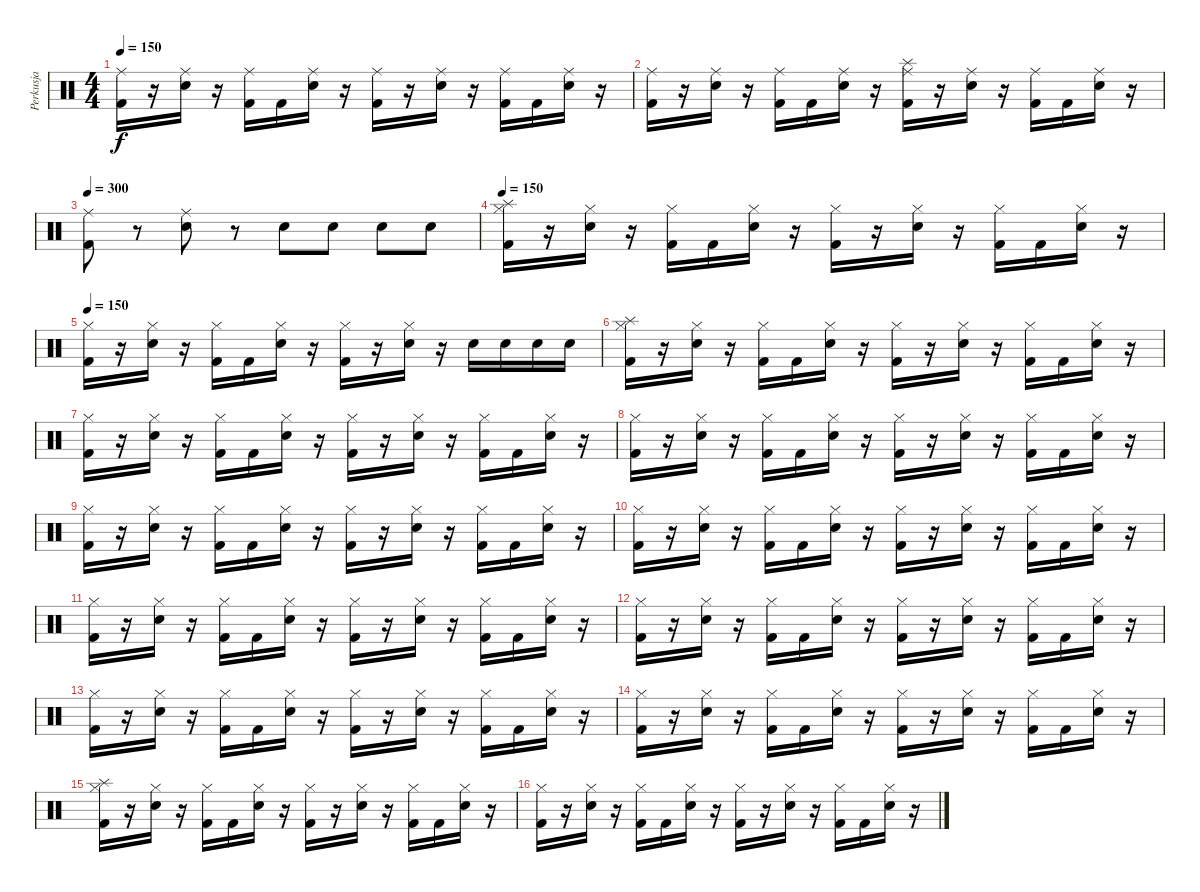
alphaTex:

\track ("Perkusja" "Perkusja") {instrument percussion}
\staff {score}
\articulation defaults
\ts (4 4)
\tempo 150
\clef neutral
\ks c
("Ride (middle)" "Kick (hit) 2").16{dy f} r.16 ("Ride (middle)" "Electric Snare (hit)").16 r.16 ("Ride (middle)" "Kick (hit) 2").16 "Kick (hit) 2".16 ("Ride (middle)" "Electric Snare (hit)").16 r.16 ("Ride (middle)" "Kick (hit) 2").16 r.16 ("Ride (middle)" "Electric Snare (hit)").16 r.16 ("Ride (middle)" "Kick (hit) 2").16 "Kick (hit) 2".16 ("Ride (middle)" "Electric Snare (hit)").16 r.16 |
("Ride (middle)" "Kick (hit) 2").16 r.16 ("Ride (middle)" "Electric Snare (hit)").16 r.16 ("Ride (middle)" "Kick (hit) 2").16 "Kick (hit) 2".16 ("Ride (middle)" "Electric Snare (hit)").16 r.16 ("Splash (hit)" "Ride (middle)" "Kick (hit) 2").16 r.16 ("Ride (middle)" "Electric Snare (hit)").16 r.16 ("Ride (middle)" "Kick (hit) 2").16 "Kick (hit) 2".16 ("Ride (middle)" "Electric Snare (hit)").16 r.16 |
\tempo 300
("Ride (middle)" "Kick (hit) 2").8 r.8 ("Ride (middle)" "Electric Snare (hit)").8 r.8 "Electric Snare (hit)".8 "Electric Snare (hit)".8 "Electric Snare (hit)".8 "Electric Snare (hit)".8 |
\tempo 150
("Splash (hit)" "Hi-Hat (closed)" "Kick (hit) 2").16 r.16 ("Hi-Hat (closed)" "Electric Snare (hit)").16 r.16 ("Hi-Hat (closed)" "Kick (hit) 2").16 "Kick (hit) 2".16 ("Hi-Hat (closed)" "Electric Snare (hit)").16 r.16 ("Hi-Hat (closed)" "Kick (hit) 2").16 r.16 ("Hi-Hat (closed)" "Electric Snare (hit)").16 r.16 ("Hi-Hat (closed)" "Kick (hit) 2").16 "Kick (hit) 2".16 ("Hi-Hat (closed)" "Electric Snare (hit)").16 r.16 |
\tempo 150
("Hi-Hat (closed)" "Kick (hit) 2").16 r.16 ("Hi-Hat (closed)" "Electric Snare (hit)").16 r.16 ("Hi-Hat (closed)" "Kick (hit) 2").16 "Kick (hit) 2".16 ("Hi-Hat (closed)" "Electric Snare (hit)").16 r.16 ("Hi-Hat (closed)" "Kick (hit) 2").16 r.16 ("Hi-Hat (closed)" "Electric Snare (hit)").16 r.16 "Electric Snare (hit)".16 "Electric Snare (hit)".16 "Electric Snare (hit)".16 "Electric Snare (hit)".16 |
("Splash (hit)" "Hi-Hat (closed)" "Kick (hit) 2").16 r.16 ("Hi-Hat (closed)" "Electric Snare (hit)").16 r.16 ("Hi-Hat (closed)" "Kick (hit) 2").16 "Kick (hit) 2".16 ("Hi-Hat (closed)" "Electric Snare (hit)").16 r.16 ("Hi-Hat (closed)" "Kick (hit) 2").16 r.16 ("Hi-Hat (closed)" "Electric Snare (hit)").16 r.16 ("Hi-Hat (closed)" "Kick (hit) 2").16 "Kick (hit) 2".16 ("Hi-Hat (closed)" "Electric Snare (hit)").16 r.16 |
("Hi-Hat (closed)" "Kick (hit) 2").16 r.16 ("Hi-Hat (closed)" "Electric Snare (hit)").16 r.16 ("Hi-Hat (closed)" "Kick (hit) 2").16 "Kick (hit) 2".16 ("Hi-Hat (closed)" "Electric Snare (hit)").16 r.16 ("Hi-Hat (closed)" "Kick (hit) 2").16 r.16 ("Hi-Hat (closed)" "Electric Snare (hit)").16 r.16 ("Hi-Hat (closed)" "Kick (hit) 2").16 "Kick (hit) 2".16 ("Hi-Hat (closed)" "Electric Snare (hit)").16 r.16 |
("Hi-Hat (closed)" "Kick (hit) 2").16 r.16 ("Hi-Hat (closed)" "Electric Snare (hit)").16 r.16 ("Hi-Hat (closed)" "Kick (hit) 2").16 "Kick (hit) 2".16 ("Hi-Hat (closed)" "Electric Snare (hit)").16 r.16 ("Hi-Hat (closed)" "Kick (hit) 2").16 r.16 ("Hi-Hat (closed)" "Electric Snare (hit)").16 r.16 ("Hi-Hat (closed)" "Kick (hit) 2").16 "Kick (hit) 2".16 ("Hi-Hat (closed)" "Electric Snare (hit)").16 r.16 |
("Hi-Hat (closed)" "Kick (hit) 2").16 r.16 ("Hi-Hat (closed)" "Electric Snare (hit)").16 r.16 ("Hi-Hat (closed)" "Kick (hit) 2").16 "Kick (hit) 2".16 ("Hi-Hat (closed)" "Electric Snare (hit)").16 r.16 ("Hi-Hat (closed)" "Kick (hit) 2").16 r.16 ("Hi-Hat (closed)" "Electric Snare (hit)").16 r.16 ("Hi-Hat (closed)" "Kick (hit) 2").16 "Kick (hit) 2".16 ("Hi-Hat (closed)" "Electric Snare (hit)").16 r.16 |
("Hi-Hat (closed)" "Kick (hit) 2").16 r.16 ("Hi-Hat (closed)" "Electric Snare (hit)").16 r.16 ("Hi-Hat (closed)" "Kick (hit) 2").16 "Kick (hit) 2".16 ("Hi-Hat (closed)" "Electric Snare (hit)").16 r.16 ("Hi-Hat (closed)" "Kick (hit) 2").16 r.16 ("Hi-Hat (closed)" "Electric Snare (hit)").16 r.16 ("Hi-Hat (closed)" "Kick (hit) 2").16 "Kick (hit) 2".16 ("Hi-Hat (closed)" "Electric Snare (hit)").16 r.16 |
("Hi-Hat (closed)" "Kick (hit) 2").16 r.16 ("Hi-Hat (closed)" "Electric Snare (hit)").16 r.16 ("Hi-Hat (closed)" "Kick (hit) 2").16 "Kick (hit) 2".16 ("Hi-Hat (closed)" "Electric Snare (hit)").16 r.16 ("Hi-Hat (closed)" "Kick (hit) 2").16 r.16 ("Hi-Hat (closed)" "Electric Snare (hit)").16 r.16 ("Hi-Hat (closed)" "Kick (hit) 2").16 "Kick (hit) 2".16 ("Hi-Hat (closed)" "Electric Snare (hit)").16 r.16 |
("Hi-Hat (closed)" "Kick (hit) 2").16 r.16 ("Hi-Hat (closed)" "Electric Snare (hit)").16 r.16 ("Hi-Hat (closed)" "Kick (hit) 2").16 "Kick (hit) 2".16 ("Hi-Hat (closed)" "Electric Snare (hit)").16 r.16 ("Hi-Hat (closed)" "Kick (hit) 2").16 r.16 ("Hi-Hat (closed)" "Electric Snare (hit)").16 r.16 ("Hi-Hat (closed)" "Kick (hit) 2").16 "Kick (hit) 2".16 ("Hi-Hat (closed)" "Electric Snare (hit)").16 r.16 |
("Hi-Hat (closed)" "Kick (hit) 2").16 r.16 ("Hi-Hat (closed)" "Electric Snare (hit)").16 r.16 ("Hi-Hat (closed)" "Kick (hit) 2").16 "Kick (hit) 2".16 ("Hi-Hat (closed)" "Electric Snare (hit)").16 r.16 ("Hi-Hat (closed)" "Kick (hit) 2").16 r.16 ("Hi-Hat (closed)" "Electric Snare (hit)").16 r.16 ("Hi-Hat (closed)" "Kick (hit) 2").16 "Kick (hit) 2".16 ("Hi-Hat (closed)" "Electric Snare (hit)").16 r.16 |
("Hi-Hat (closed)" "Kick (hit) 2").16 r.16 ("Hi-Hat (closed)" "Electric Snare (hit)").16 r.16 ("Hi-Hat (closed)" "Kick (hit) 2").16 "Kick (hit) 2".16 ("Hi-Hat (closed)" "Electric Snare (hit)").16 r.16 ("Hi-Hat (closed)" "Kick (hit) 2").16 r.16 ("Hi-Hat (closed)" "Electric Snare (hit)").16 r.16 ("Hi-Hat (closed)" "Kick (hit) 2").16 "Kick (hit) 2".16 ("Hi-Hat (closed)" "Electric Snare (hit)").16 r.16 |
("Splash (hit)" "Hi-Hat (closed)" "Kick (hit) 2").16 r.16 ("Hi-Hat (closed)" "Electric Snare (hit)").16 r.16 ("Hi-Hat (closed)" "Kick (hit) 2").16 "Kick (hit) 2".16 ("Hi-Hat (closed)" "Electric Snare (hit)").16 r.16 ("Hi-Hat (closed)" "Kick (hit) 2").16 r.16 ("Hi-Hat (closed)" "Electric Snare (hit)").16 r.16 ("Hi-Hat (closed)" "Kick (hit) 2").16 "Kick (hit) 2".16 ("Hi-Hat (closed)" "Electric Snare (hit)").16 r.16 |
("Hi-Hat (closed)" "Kick (hit) 2").16 r.16 ("Hi-Hat (closed)" "Electric Snare (hit)").16 r.16 ("Hi-Hat (closed)" "Kick (hit) 2").16 "Kick (hit) 2".16 ("Hi-Hat (closed)" "Electric Snare (hit)").16 r.16 ("Hi-Hat (closed)" "Kick (hit) 2").16 r.16 ("Hi-Hat (closed)" "Electric Snare (hit)").16 r.16 ("Hi-Hat (closed)" "Kick (hit) 2").16 "Kick (hit) 2".16 ("Hi-Hat (closed)" "Electric Snare (hit)").16 r.16
